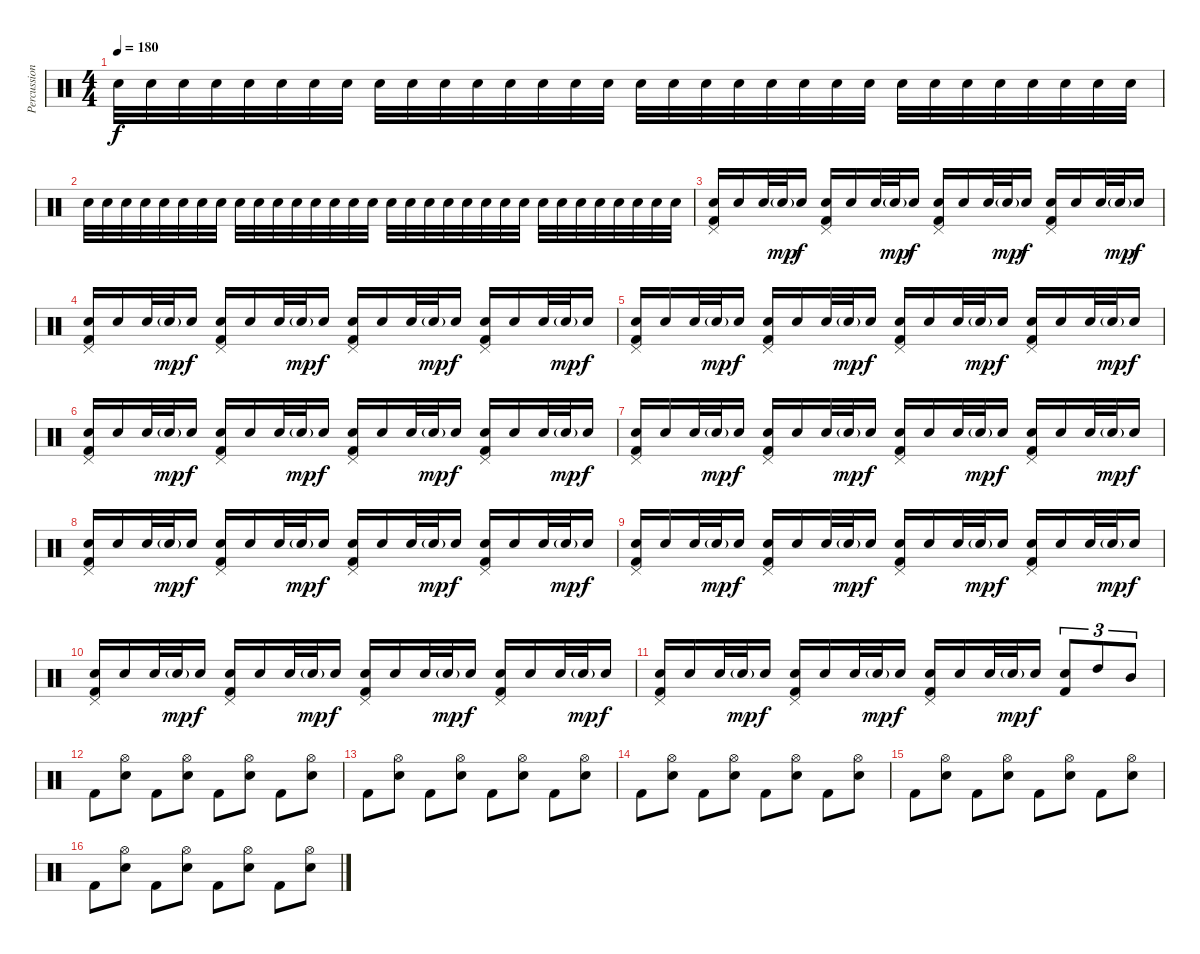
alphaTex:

\track ("Percussion" "Percussion") {instrument percussion}
\staff {score}
\articulation defaults
\ts (4 4)
\tempo 180
\clef neutral
\ks c "Electric Snare (hit)".32{dy f} "Electric Snare (hit)".32 "Electric Snare (hit)".32 "Electric Snare (hit)".32 "Electric Snare (hit)".32 "Electric Snare (hit)".32 "Electric Snare (hit)".32 "Electric Snare (hit)".32 "Electric Snare (hit)".32 "Electric Snare (hit)".32 "Electric Snare (hit)".32 "Electric Snare (hit)".32 "Electric Snare (hit)".32 "Electric Snare (hit)".32 "Electric Snare (hit)".32 "Electric Snare (hit)".32 "Electric Snare (hit)".32 "Electric Snare (hit)".32 "Electric Snare (hit)".32 "Electric Snare (hit)".32 "Electric Snare (hit)".32 "Electric Snare (hit)".32 "Electric Snare (hit)".32 "Electric Snare (hit)".32 "Electric Snare (hit)".32 "Electric Snare (hit)".32 "Electric Snare (hit)".32 "Electric Snare (hit)".32 "Electric Snare (hit)".32 "Electric Snare (hit)".32 "Electric Snare (hit)".32 "Electric Snare (hit)".32
|
"Electric Snare (hit)".32 "Electric Snare (hit)".32 "Electric Snare (hit)".32 "Electric Snare (hit)".32 "Electric Snare (hit)".32 "Electric Snare (hit)".32 "Electric Snare (hit)".32 "Electric Snare (hit)".32 "Electric Snare (hit)".32 "Electric Snare (hit)".32 "Electric Snare (hit)".32 "Electric Snare (hit)".32 "Electric Snare (hit)".32 "Electric Snare (hit)".32 "Electric Snare (hit)".32 "Electric Snare (hit)".32 "Electric Snare (hit)".32 "Electric Snare (hit)".32 "Electric Snare (hit)".32 "Electric Snare (hit)".32 "Electric Snare (hit)".32 "Electric Snare (hit)".32 "Electric Snare (hit)".32 "Electric Snare (hit)".32 "Electric Snare (hit)".32 "Electric Snare (hit)".32 "Electric Snare (hit)".32 "Electric Snare (hit)".32 "Electric Snare (hit)".32 "Electric Snare (hit)".32 "Electric Snare (hit)".32 "Electric Snare (hit)".32 |
("Pedal Hi-Hat (hit)" "Electric Snare (hit)" "Kick (hit) 2").16 "Electric Snare (hit)".16 "Electric Snare (hit)".32 "Electric Snare (hit)"{g}.32{dy mp} "Electric Snare (hit)".16{dy f} ("Pedal Hi-Hat (hit)" "Electric Snare (hit)" "Kick (hit) 2").16 "Electric Snare (hit)".16 "Electric Snare (hit)".32 "Electric Snare (hit)"{g}.32{dy mp} "Electric Snare (hit)".16{dy f} ("Pedal Hi-Hat (hit)" "Electric Snare (hit)" "Kick (hit) 2").16 "Electric Snare (hit)".16 "Electric Snare (hit)".32 "Electric Snare (hit)"{g}.32{dy mp} "Electric Snare (hit)".16{dy f} ("Pedal Hi-Hat (hit)" "Electric Snare (hit)" "Kick (hit) 2").16 "Electric Snare (hit)".16 "Electric Snare (hit)".32 "Electric Snare (hit)"{g}.32{dy mp} "Electric Snare (hit)".16{dy f} |
("Pedal Hi-Hat (hit)" "Electric Snare (hit)" "Kick (hit) 2").16 "Electric Snare (hit)".16 "Electric Snare (hit)".32 "Electric Snare (hit)"{g}.32{dy mp} "Electric Snare (hit)".16{dy f} ("Pedal Hi-Hat (hit)" "Electric Snare (hit)" "Kick (hit) 2").16 "Electric Snare (hit)".16 "Electric Snare (hit)".32 "Electric Snare (hit)"{g}.32{dy mp} "Electric Snare (hit)".16{dy f} ("Pedal Hi-Hat (hit)" "Electric Snare (hit)" "Kick (hit) 2").16 "Electric Snare (hit)".16 "Electric Snare (hit)".32 "Electric Snare (hit)"{g}.32{dy mp} "Electric Snare (hit)".16{dy f} ("Pedal Hi-Hat (hit)" "Electric Snare (hit)" "Kick (hit) 2").16 "Electric Snare (hit)".16 "Electric Snare (hit)".32 "Electric Snare (hit)"{g}.32{dy mp} "Electric Snare (hit)".16{dy f} |
("Pedal Hi-Hat (hit)" "Electric Snare (hit)" "Kick (hit) 2").16 "Electric Snare (hit)".16 "Electric Snare (hit)".32 "Electric Snare (hit)"{g}.32{dy mp} "Electric Snare (hit)".16{dy f} ("Pedal Hi-Hat (hit)" "Electric Snare (hit)" "Kick (hit) 2").16 "Electric Snare (hit)".16 "Electric Snare (hit)".32 "Electric Snare (hit)"{g}.32{dy mp} "Electric Snare (hit)".16{dy f} ("Pedal Hi-Hat (hit)" "Electric Snare (hit)" "Kick (hit) 2").16 "Electric Snare (hit)".16 "Electric Snare (hit)".32 "Electric Snare (hit)"{g}.32{dy mp} "Electric Snare (hit)".16{dy f} ("Pedal Hi-Hat (hit)" "Electric Snare (hit)" "Kick (hit) 2").16 "Electric Snare (hit)".16 "Electric Snare (hit)".32 "Electric Snare (hit)"{g}.32{dy mp} "Electric Snare (hit)".16{dy f} |
("Pedal Hi-Hat (hit)" "Electric Snare (hit)" "Kick (hit) 2").16 "Electric Snare (hit)".16 "Electric Snare (hit)".32 "Electric Snare (hit)"{g}.32{dy mp} "Electric Snare (hit)".16{dy f} ("Pedal Hi-Hat (hit)" "Electric Snare (hit)" "Kick (hit) 2").16 "Electric Snare (hit)".16 "Electric Snare (hit)".32 "Electric Snare (hit)"{g}.32{dy mp} "Electric Snare (hit)".16{dy f} ("Pedal Hi-Hat (hit)" "Electric Snare (hit)" "Kick (hit) 2").16 "Electric Snare (hit)".16 "Electric Snare (hit)".32 "Electric Snare (hit)"{g}.32{dy mp} "Electric Snare (hit)".16{dy f} ("Pedal Hi-Hat (hit)" "Electric Snare (hit)" "Kick (hit) 2").16 "Electric Snare (hit)".16 "Electric Snare (hit)".32 "Electric Snare (hit)"{g}.32{dy mp} "Electric Snare (hit)".16{dy f} |
("Pedal Hi-Hat (hit)" "Electric Snare (hit)" "Kick (hit) 2").16 "Electric Snare (hit)".16 "Electric Snare (hit)".32 "Electric Snare (hit)"{g}.32{dy mp} "Electric Snare (hit)".16{dy f} ("Pedal Hi-Hat (hit)" "Electric Snare (hit)" "Kick (hit) 2").16 "Electric Snare (hit)".16 "Electric Snare (hit)".32 "Electric Snare (hit)"{g}.32{dy mp} "Electric Snare (hit)".16{dy f} ("Pedal Hi-Hat (hit)" "Electric Snare (hit)" "Kick (hit) 2").16 "Electric Snare (hit)".16 "Electric Snare (hit)".32 "Electric Snare (hit)"{g}.32{dy mp} "Electric Snare (hit)".16{dy f} ("Pedal Hi-Hat (hit)" "Electric Snare (hit)" "Kick (hit) 2").16 "Electric Snare (hit)".16 "Electric Snare (hit)".32 "Electric Snare (hit)"{g}.32{dy mp} "Electric Snare (hit)".16{dy f} |
("Pedal Hi-Hat (hit)" "Electric Snare (hit)" "Kick (hit) 2").16 "Electric Snare (hit)".16 "Electric Snare (hit)".32 "Electric Snare (hit)"{g}.32{dy mp} "Electric Snare (hit)".16{dy f} ("Pedal Hi-Hat (hit)" "Electric Snare (hit)" "Kick (hit) 2").16 "Electric Snare (hit)".16 "Electric Snare (hit)".32 "Electric Snare (hit)"{g}.32{dy mp} "Electric Snare (hit)".16{dy f} ("Pedal Hi-Hat (hit)" "Electric Snare (hit)" "Kick (hit) 2").16 "Electric Snare (hit)".16 "Electric Snare (hit)".32 "Electric Snare (hit)"{g}.32{dy mp} "Electric Snare (hit)".16{dy f} ("Pedal Hi-Hat (hit)" "Electric Snare (hit)" "Kick (hit) 2").16 "Electric Snare (hit)".16 "Electric Snare (hit)".32 "Electric Snare (hit)"{g}.32{dy mp} "Electric Snare (hit)".16{dy f} |
("Pedal Hi-Hat (hit)" "Electric Snare (hit)" "Kick (hit) 2").16 "Electric Snare (hit)".16 "Electric Snare (hit)".32 "Electric Snare (hit)"{g}.32{dy mp} "Electric Snare (hit)".16{dy f} ("Pedal Hi-Hat (hit)" "Electric Snare (hit)" "Kick (hit) 2").16 "Electric Snare (hit)".16 "Electric Snare (hit)".32 "Electric Snare (hit)"{g}.32{dy mp} "Electric Snare (hit)".16{dy f} ("Pedal Hi-Hat (hit)" "Electric Snare (hit)" "Kick (hit) 2").16 "Electric Snare (hit)".16 "Electric Snare (hit)".32 "Electric Snare (hit)"{g}.32{dy mp} "Electric Snare (hit)".16{dy f} ("Pedal Hi-Hat (hit)" "Electric Snare (hit)" "Kick (hit) 2").16 "Electric Snare (hit)".16 "Electric Snare (hit)".32 "Electric Snare (hit)"{g}.32{dy mp} "Electric Snare (hit)".16{dy f} |
("Pedal Hi-Hat (hit)" "Electric Snare (hit)" "Kick (hit) 2").16 "Electric Snare (hit)".16 "Electric Snare (hit)".32 "Electric Snare (hit)"{g}.32{dy mp} "Electric Snare (hit)".16{dy f} ("Pedal Hi-Hat (hit)" "Electric Snare (hit)" "Kick (hit) 2").16 "Electric Snare (hit)".16 "Electric Snare (hit)".32 "Electric Snare (hit)"{g}.32{dy mp} "Electric Snare (hit)".16{dy f} ("Pedal Hi-Hat (hit)" "Electric Snare (hit)" "Kick (hit) 2").16 "Electric Snare (hit)".16 "Electric Snare (hit)".32 "Electric Snare (hit)"{g}.32{dy mp} "Electric Snare (hit)".16{dy f} ("Pedal Hi-Hat (hit)" "Electric Snare (hit)" "Kick (hit) 2").16 "Electric Snare (hit)".16 "Electric Snare (hit)".32 "Electric Snare (hit)"{g}.32{dy mp} "Electric Snare (hit)".16{dy f} |
("Pedal Hi-Hat (hit)" "Electric Snare (hit)" "Kick (hit) 2").16 "Electric Snare (hit)".16 "Electric Snare (hit)".32 "Electric Snare (hit)"{g}.32{dy mp} "Electric Snare (hit)".16{dy f} ("Pedal Hi-Hat (hit)" "Electric Snare (hit)" "Kick (hit) 2").16 "Electric Snare (hit)".16 "Electric Snare (hit)".32 "Electric Snare (hit)"{g}.32{dy mp} "Electric Snare (hit)".16{dy f} ("Pedal Hi-Hat (hit)" "Electric Snare (hit)" "Kick (hit) 2").16 "Electric Snare (hit)".16 "Electric Snare (hit)".32 "Electric Snare (hit)"{g}.32{dy mp} "Electric Snare (hit)".16{dy f} ("Electric Snare (hit)" "Kick (hit) 2").8{tu (3 2)} "High Tom (hit)".8{tu (3 2)} "Mid Tom (hit)".8{tu (3 2)} |
"Kick (hit) 2".8 ("Hi-Hat (open)" "Electric Snare (hit)").8 "Kick (hit) 2".8 ("Hi-Hat (open)" "Electric Snare (hit)").8 "Kick (hit) 2".8 ("Hi-Hat (open)" "Electric Snare (hit)").8 "Kick (hit) 2".8 ("Hi-Hat (open)" "Electric Snare (hit)").8 |
"Kick (hit) 2".8 ("Hi-Hat (open)" "Electric Snare (hit)").8 "Kick (hit) 2".8 ("Hi-Hat (open)" "Electric Snare (hit)").8 "Kick (hit) 2".8 ("Hi-Hat (open)" "Electric Snare (hit)").8 "Kick (hit) 2".8 ("Hi-Hat (open)" "Electric Snare (hit)").8 |
"Kick (hit) 2".8 ("Hi-Hat (open)" "Electric Snare (hit)").8 "Kick (hit) 2".8 ("Hi-Hat (open)" "Electric Snare (hit)").8 "Kick (hit) 2".8 ("Hi-Hat (open)" "Electric Snare (hit)").8 "Kick (hit) 2".8 ("Hi-Hat (open)" "Electric Snare (hit)").8 |
"Kick (hit) 2".8 ("Hi-Hat (open)" "Electric Snare (hit)").8 "Kick (hit) 2".8 ("Hi-Hat (open)" "Electric Snare (hit)").8 "Kick (hit) 2".8 ("Hi-Hat (open)" "Electric Snare (hit)").8 "Kick (hit) 2".8 ("Hi-Hat (open)" "Electric Snare (hit)").8 |
"Kick (hit) 2".8 ("Hi-Hat (open)" "Electric Snare (hit)").8 "Kick (hit) 2".8 ("Hi-Hat (open)" "Electric Snare (hit)").8 "Kick (hit) 2".8 ("Hi-Hat (open)" "Electric Snare (hit)").8 "Kick (hit) 2".8 ("Hi-Hat (open)" "Electric Snare (hit)").8
